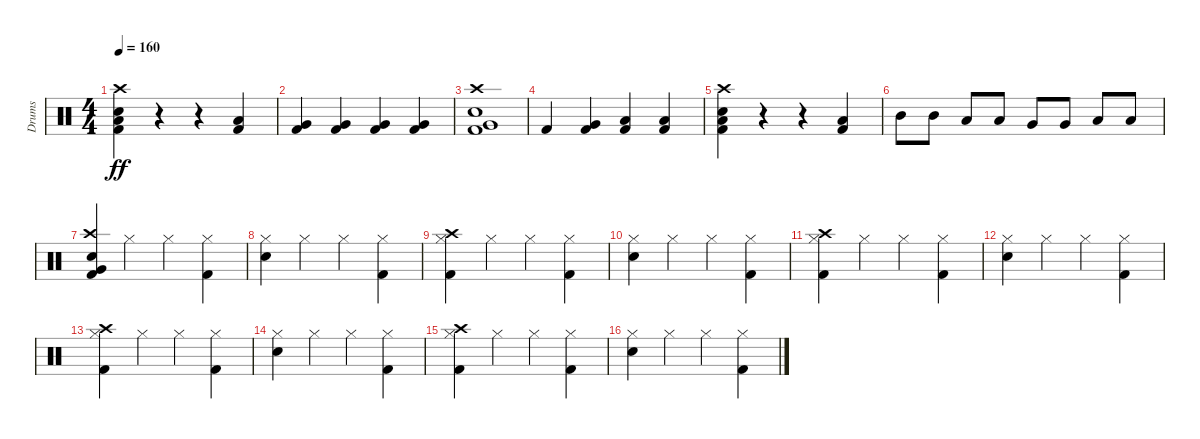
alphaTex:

\track ("Drums" "Drums") {instrument percussion}
\staff {score}
\articulation defaults
\ts (4 4)
\tempo 160
\clef neutral
\ks c
("Kick (hit) 2" "Low Floor Tom (hit)" "Snare (hit) 2" "Crash high (hit)").4{dy ff} r.4 r.4 ("Kick (hit) 2" "Low Floor Tom (hit)").4 |
("Kick (hit) 2" "Very Low Tom (hit)").4 ("Kick (hit) 2" "Very Low Tom (hit)").4 ("Kick (hit) 2" "Very Low Tom (hit)").4 ("Kick (hit) 2" "Very Low Tom (hit)").4 |
("Snare (hit) 2" "Very Low Tom (hit)" "Crash high (hit)" "Kick (hit) 2").1 |
"Kick (hit) 2".4 ("Very Low Tom (hit)" "Kick (hit) 2").4 ("Low Floor Tom (hit)" "Kick (hit) 2").4 ("Low Floor Tom (hit)" "Kick (hit) 2").4 |
("Kick (hit) 2" "Low Floor Tom (hit)" "Snare (hit) 2" "Crash high (hit)").4 r.4 r.4 ("Kick (hit) 2" "Low Floor Tom (hit)").4 |
"Mid Tom (hit)".8 "Mid Tom (hit)".8 "Low Tom (hit)".8 "Low Tom (hit)".8 "Very Low Tom (hit)".8 "Very Low Tom (hit)".8 "Low Floor Tom (hit)".8 "Low Floor Tom (hit)".8 |
("Snare (hit) 2" "Very Low Tom (hit)" "Crash high (hit)" "Kick (hit) 2").4 "Hi-Hat (closed)".4 "Hi-Hat (closed)".4 ("Hi-Hat (closed)" "Kick (hit) 2").4 |
("Hi-Hat (closed)" "Snare (hit) 2").4 "Hi-Hat (closed)".4 "Hi-Hat (closed)".4 ("Hi-Hat (closed)" "Kick (hit) 2").4 |
("Hi-Hat (closed)" "Crash high (hit)" "Kick (hit) 2").4 "Hi-Hat (closed)".4 "Hi-Hat (closed)".4 ("Hi-Hat (closed)" "Kick (hit) 2").4 |
("Hi-Hat (closed)" "Snare (hit) 2").4 "Hi-Hat (closed)".4 "Hi-Hat (closed)".4 ("Hi-Hat (closed)" "Kick (hit) 2").4 |
("Hi-Hat (closed)" "Crash high (hit)" "Kick (hit) 2").4 "Hi-Hat (closed)".4 "Hi-Hat (closed)".4 ("Hi-Hat (closed)" "Kick (hit) 2").4 |
("Hi-Hat (closed)" "Snare (hit) 2").4 "Hi-Hat (closed)".4 "Hi-Hat (closed)".4 ("Hi-Hat (closed)" "Kick (hit) 2").4 |
("Hi-Hat (closed)" "Crash high (hit)" "Kick (hit) 2").4 "Hi-Hat (closed)".4 "Hi-Hat (closed)".4 ("Hi-Hat (closed)" "Kick (hit) 2").4 |
("Hi-Hat (closed)" "Snare (hit) 2").4 "Hi-Hat (closed)".4 "Hi-Hat (closed)".4 ("Hi-Hat (closed)" "Kick (hit) 2").4 |
("Hi-Hat (closed)" "Crash high (hit)" "Kick (hit) 2").4 "Hi-Hat (closed)".4 "Hi-Hat (closed)".4 ("Hi-Hat (closed)" "Kick (hit) 2").4 |
("Hi-Hat (closed)" "Snare (hit) 2").4 "Hi-Hat (closed)".4 "Hi-Hat (closed)".4 ("Hi-Hat (closed)" "Kick (hit) 2").4
